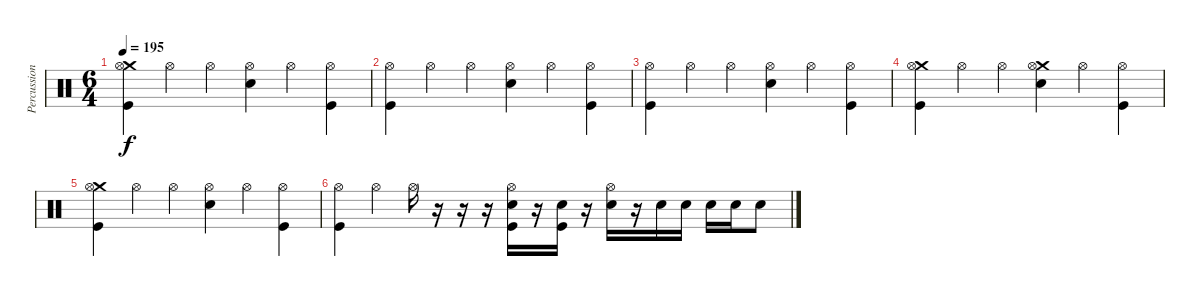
\track ("Percussion" "Percussion") {instrument percussion}
\staff {score}
\articulation defaults
\ts (6 4)
\tempo 195
\clef neutral
\ks c
("Crash medium (hit)" "Hi-Hat (open)" "Kick (hit)").4{dy f} "Hi-Hat (open)".4 "Hi-Hat (open)".4 ("Electric Snare (hit)" "Hi-Hat (open)").4 "Hi-Hat (open)".4 ("Hi-Hat (open)" "Kick (hit)").4 |
("Hi-Hat (open)" "Kick (hit)").4 "Hi-Hat (open)".4 "Hi-Hat (open)".4 ("Electric Snare (hit)" "Hi-Hat (open)").4 "Hi-Hat (open)".4 ("Hi-Hat (open)" "Kick (hit)").4 |
("Hi-Hat (open)" "Kick (hit)").4 "Hi-Hat (open)".4 "Hi-Hat (open)".4 ("Electric Snare (hit)" "Hi-Hat (open)").4 "Hi-Hat (open)".4 ("Hi-Hat (open)" "Kick (hit)").4 |
("Crash medium (hit)" "Hi-Hat (open)" "Kick (hit)").4 "Hi-Hat (open)".4 "Hi-Hat (open)".4 ("Electric Snare (hit)" "Crash medium (hit)" "Hi-Hat (open)").4 "Hi-Hat (open)".4 ("Hi-Hat (open)" "Kick (hit)").4 |
("Crash medium (hit)" "Hi-Hat (open)" "Kick (hit)").4 "Hi-Hat (open)".4 "Hi-Hat (open)".4 ("Electric Snare (hit)" "Hi-Hat (open)").4 "Hi-Hat (open)".4 ("Hi-Hat (open)" "Kick (hit)").4 |
("Hi-Hat (open)" "Kick (hit)").4 "Hi-Hat (open)".4 "Hi-Hat (open)".16 r.16 r.16 r.16 ("Electric Snare (hit)" "Hi-Hat (open)" "Kick (hit)").16 r.16 ("Electric Snare (hit)" "Kick (hit)").16 r.16 ("Hi-Hat (open)" "Electric Snare (hit)").16 r.16 "Electric Snare (hit)".16 "Electric Snare (hit)".16 "Electric Snare (hit)".16 "Electric Snare (hit)".16 "Electric Snare (hit)".8
